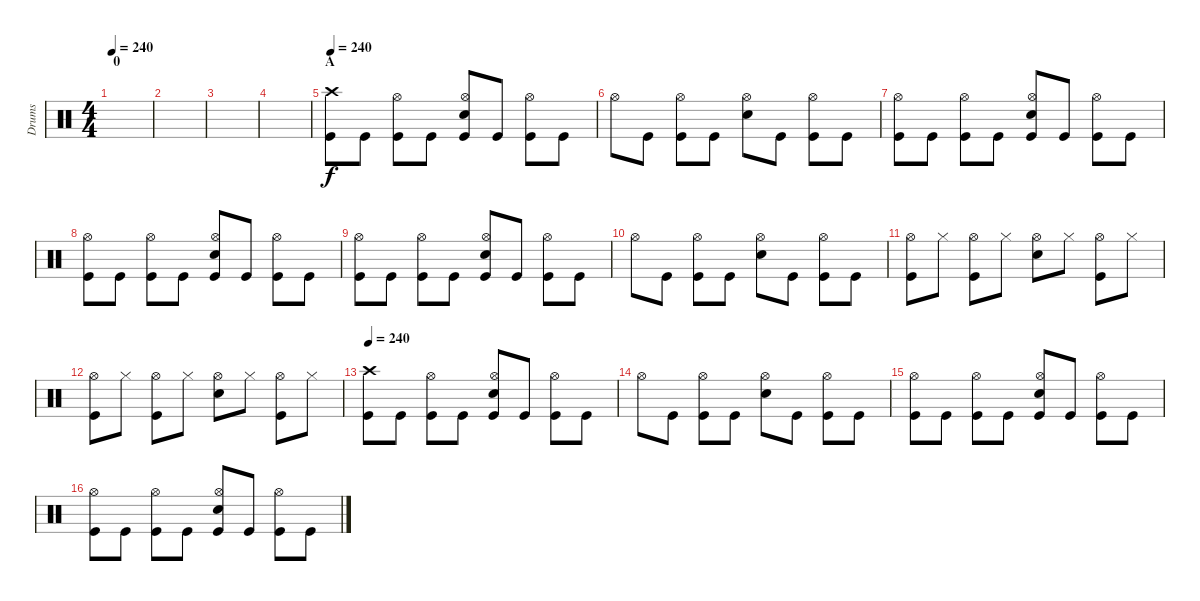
\track ("Drums" "Drums") {instrument percussion}
\staff {score}
\articulation defaults
\ts (4 4)
\section ("" "0")
\tempo 240
\clef neutral
\ks c
|
|
|
|
\section ("" "A")
\tempo 240
("Crash high (hit)" "Kick (hit)").8 "Kick (hit)".8 ("Hi-Hat (open)" "Kick (hit)").8 "Kick (hit)".8 ("Hi-Hat (open)" "Snare (hit) 2" "Kick (hit)").8 "Kick (hit)".8 ("Hi-Hat (open)" "Kick (hit)").8 "Kick (hit)".8 |
"Hi-Hat (open)".8 "Kick (hit)".8 ("Hi-Hat (open)" "Kick (hit)").8 "Kick (hit)".8 ("Hi-Hat (open)" "Snare (hit) 2").8 "Kick (hit)".8 ("Hi-Hat (open)" "Kick (hit)").8 "Kick (hit)".8 |
("Hi-Hat (open)" "Kick (hit)").8 "Kick (hit)".8 ("Hi-Hat (open)" "Kick (hit)").8 "Kick (hit)".8 ("Hi-Hat (open)" "Snare (hit) 2" "Kick (hit)").8 "Kick (hit)".8 ("Hi-Hat (open)" "Kick (hit)").8 "Kick (hit)".8 |
("Hi-Hat (open)" "Kick (hit)").8 "Kick (hit)".8 ("Hi-Hat (open)" "Kick (hit)").8 "Kick (hit)".8 ("Hi-Hat (open)" "Snare (hit) 2" "Kick (hit)").8 "Kick (hit)".8 ("Hi-Hat (open)" "Kick (hit)").8 "Kick (hit)".8 |
("Hi-Hat (open)" "Kick (hit)").8 "Kick (hit)".8 ("Hi-Hat (open)" "Kick (hit)").8 "Kick (hit)".8 ("Hi-Hat (open)" "Snare (hit) 2" "Kick (hit)").8 "Kick (hit)".8 ("Hi-Hat (open)" "Kick (hit)").8 "Kick (hit)".8 |
"Hi-Hat (open)".8 "Kick (hit)".8 ("Hi-Hat (open)" "Kick (hit)").8 "Kick (hit)".8 ("Hi-Hat (open)" "Snare (hit) 2").8 "Kick (hit)".8 ("Hi-Hat (open)" "Kick (hit)").8 "Kick (hit)".8 |
("Hi-Hat (open)" "Kick (hit)").8 "Hi-Hat (closed)".8 ("Hi-Hat (open)" "Kick (hit)").8 "Hi-Hat (closed)".8 ("Hi-Hat (open)" "Snare (hit) 2").8 "Hi-Hat (closed)".8 ("Hi-Hat (open)" "Kick (hit)").8 "Hi-Hat (closed)".8 |
("Hi-Hat (open)" "Kick (hit)").8 "Hi-Hat (closed)".8 ("Hi-Hat (open)" "Kick (hit)").8 "Hi-Hat (closed)".8 ("Hi-Hat (open)" "Snare (hit) 2").8 "Hi-Hat (closed)".8 ("Hi-Hat (open)" "Kick (hit)").8 "Hi-Hat (closed)".8 |
\tempo 240
("Crash high (hit)" "Kick (hit)").8 "Kick (hit)".8 ("Hi-Hat (open)" "Kick (hit)").8 "Kick (hit)".8 ("Hi-Hat (open)" "Snare (hit) 2" "Kick (hit)").8 "Kick (hit)".8 ("Hi-Hat (open)" "Kick (hit)").8 "Kick (hit)".8 |
"Hi-Hat (open)".8 "Kick (hit)".8 ("Hi-Hat (open)" "Kick (hit)").8 "Kick (hit)".8 ("Hi-Hat (open)" "Snare (hit) 2").8 "Kick (hit)".8 ("Hi-Hat (open)" "Kick (hit)").8 "Kick (hit)".8 |
("Hi-Hat (open)" "Kick (hit)").8 "Kick (hit)".8 ("Hi-Hat (open)" "Kick (hit)").8 "Kick (hit)".8 ("Hi-Hat (open)" "Snare (hit) 2" "Kick (hit)").8 "Kick (hit)".8 ("Hi-Hat (open)" "Kick (hit)").8 "Kick (hit)".8 |
("Hi-Hat (open)" "Kick (hit)").8 "Kick (hit)".8 ("Hi-Hat (open)" "Kick (hit)").8 "Kick (hit)".8 ("Hi-Hat (open)" "Snare (hit) 2" "Kick (hit)").8 "Kick (hit)".8 ("Hi-Hat (open)" "Kick (hit)").8 "Kick (hit)".8
